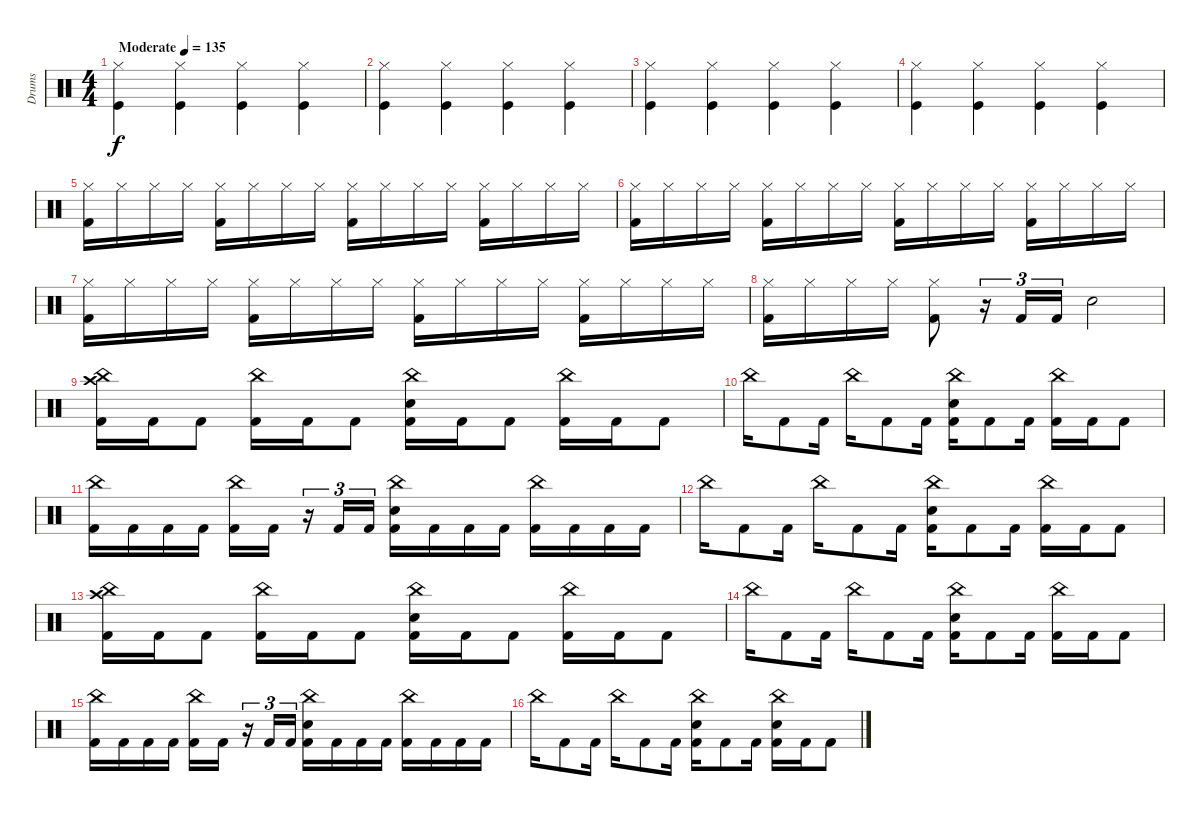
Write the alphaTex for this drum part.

\track ("Drums" "Drums") {instrument percussion}
\staff {score}
\articulation defaults
\ts (4 4)
\tempo (135 "Moderate")
\clef neutral
\ks c
("Kick (hit)" "Hi-Hat (closed)").4{dy f} ("Kick (hit)" "Hi-Hat (closed)").4 ("Kick (hit)" "Hi-Hat (closed)").4 ("Kick (hit)" "Hi-Hat (closed)").4 |
("Kick (hit)" "Hi-Hat (closed)").4 ("Kick (hit)" "Hi-Hat (closed)").4 ("Kick (hit)" "Hi-Hat (closed)").4 ("Kick (hit)" "Hi-Hat (closed)").4 |
("Kick (hit)" "Hi-Hat (closed)").4 ("Kick (hit)" "Hi-Hat (closed)").4 ("Kick (hit)" "Hi-Hat (closed)").4 ("Kick (hit)" "Hi-Hat (closed)").4 |
("Kick (hit)" "Hi-Hat (closed)").4 ("Kick (hit)" "Hi-Hat (closed)").4 ("Kick (hit)" "Hi-Hat (closed)").4 ("Kick (hit)" "Hi-Hat (closed)").4 |
("Hi-Hat (closed)" "Kick (hit) 2").16 "Hi-Hat (closed)".16 "Hi-Hat (closed)".16 "Hi-Hat (closed)".16 ("Hi-Hat (closed)" "Kick (hit) 2").16 "Hi-Hat (closed)".16 "Hi-Hat (closed)".16 "Hi-Hat (closed)".16 ("Hi-Hat (closed)" "Kick (hit) 2").16 "Hi-Hat (closed)".16 "Hi-Hat (closed)".16 "Hi-Hat (closed)".16 ("Hi-Hat (closed)" "Kick (hit) 2").16 "Hi-Hat (closed)".16 "Hi-Hat (closed)".16 "Hi-Hat (closed)".16 |
("Hi-Hat (closed)" "Kick (hit) 2").16 "Hi-Hat (closed)".16 "Hi-Hat (closed)".16 "Hi-Hat (closed)".16 ("Hi-Hat (closed)" "Kick (hit) 2").16 "Hi-Hat (closed)".16 "Hi-Hat (closed)".16 "Hi-Hat (closed)".16 ("Hi-Hat (closed)" "Kick (hit) 2").16 "Hi-Hat (closed)".16 "Hi-Hat (closed)".16 "Hi-Hat (closed)".16 ("Hi-Hat (closed)" "Kick (hit) 2").16 "Hi-Hat (closed)".16 "Hi-Hat (closed)".16 "Hi-Hat (closed)".16 |
("Hi-Hat (closed)" "Kick (hit) 2").16 "Hi-Hat (closed)".16 "Hi-Hat (closed)".16 "Hi-Hat (closed)".16 ("Hi-Hat (closed)" "Kick (hit) 2").16 "Hi-Hat (closed)".16 "Hi-Hat (closed)".16 "Hi-Hat (closed)".16 ("Hi-Hat (closed)" "Kick (hit) 2").16 "Hi-Hat (closed)".16 "Hi-Hat (closed)".16 "Hi-Hat (closed)".16 ("Hi-Hat (closed)" "Kick (hit) 2").16 "Hi-Hat (closed)".16 "Hi-Hat (closed)".16 "Hi-Hat (closed)".16 |
("Hi-Hat (closed)" "Kick (hit) 2").16 "Hi-Hat (closed)".16 "Hi-Hat (closed)".16 "Hi-Hat (closed)".16 ("Hi-Hat (closed)" "Kick (hit) 2").8 r.16{tu (3 2)} "Kick (hit) 2".16{tu (3 2)} "Kick (hit) 2".16{tu (3 2)} "Electric Snare (hit)".2 |
("China (hit)" "Crash high (hit)" "Kick (hit) 2").16 "Kick (hit) 2".16 "Kick (hit) 2".8 ("China (hit)" "Kick (hit) 2").16 "Kick (hit) 2".16 "Kick (hit) 2".8 ("China (hit)" "Electric Snare (hit)" "Kick (hit) 2").16 "Kick (hit) 2".16 "Kick (hit) 2".8 ("China (hit)" "Kick (hit) 2").16 "Kick (hit) 2".16 "Kick (hit) 2".8 |
"China (hit)".16 "Kick (hit) 2".8 "Kick (hit) 2".16 "China (hit)".16 "Kick (hit) 2".8 "Kick (hit) 2".16 ("China (hit)" "Electric Snare (hit)" "Kick (hit) 2").16 "Kick (hit) 2".8 "Kick (hit) 2".16 ("China (hit)" "Kick (hit) 2").16 "Kick (hit) 2".16 "Kick (hit) 2".8 |
("China (hit)" "Kick (hit) 2").16 "Kick (hit) 2".16 "Kick (hit) 2".16 "Kick (hit) 2".16 ("China (hit)" "Kick (hit) 2").16 "Kick (hit) 2".16 r.16{tu (3 2)} "Kick (hit) 2".16{tu (3 2)} "Kick (hit) 2".16{tu (3 2)} ("China (hit)" "Electric Snare (hit)" "Kick (hit) 2").16 "Kick (hit) 2".16 "Kick (hit) 2".16 "Kick (hit) 2".16 ("China (hit)" "Kick (hit) 2").16 "Kick (hit) 2".16 "Kick (hit) 2".16 "Kick (hit) 2".16 |
"China (hit)".16 "Kick (hit) 2".8 "Kick (hit) 2".16 "China (hit)".16 "Kick (hit) 2".8 "Kick (hit) 2".16 ("China (hit)" "Electric Snare (hit)" "Kick (hit) 2").16 "Kick (hit) 2".8 "Kick (hit) 2".16 ("China (hit)" "Kick (hit) 2").16 "Kick (hit) 2".16 "Kick (hit) 2".8 |
("China (hit)" "Crash high (hit)" "Kick (hit) 2").16 "Kick (hit) 2".16 "Kick (hit) 2".8 ("China (hit)" "Kick (hit) 2").16 "Kick (hit) 2".16 "Kick (hit) 2".8 ("China (hit)" "Electric Snare (hit)" "Kick (hit) 2").16 "Kick (hit) 2".16 "Kick (hit) 2".8 ("China (hit)" "Kick (hit) 2").16 "Kick (hit) 2".16 "Kick (hit) 2".8 |
"China (hit)".16 "Kick (hit) 2".8 "Kick (hit) 2".16 "China (hit)".16 "Kick (hit) 2".8 "Kick (hit) 2".16 ("China (hit)" "Electric Snare (hit)" "Kick (hit) 2").16 "Kick (hit) 2".8 "Kick (hit) 2".16 ("China (hit)" "Kick (hit) 2").16 "Kick (hit) 2".16 "Kick (hit) 2".8 |
("China (hit)" "Kick (hit) 2").16 "Kick (hit) 2".16 "Kick (hit) 2".16 "Kick (hit) 2".16 ("China (hit)" "Kick (hit) 2").16 "Kick (hit) 2".16 r.16{tu (3 2)} "Kick (hit) 2".16{tu (3 2)} "Kick (hit) 2".16{tu (3 2)} ("China (hit)" "Electric Snare (hit)" "Kick (hit) 2").16 "Kick (hit) 2".16 "Kick (hit) 2".16 "Kick (hit) 2".16 ("China (hit)" "Kick (hit) 2").16 "Kick (hit) 2".16 "Kick (hit) 2".16 "Kick (hit) 2".16 |
"China (hit)".16 "Kick (hit) 2".8 "Kick (hit) 2".16 "China (hit)".16 "Kick (hit) 2".8 "Kick (hit) 2".16 ("China (hit)" "Electric Snare (hit)" "Kick (hit) 2").16 "Kick (hit) 2".8 "Kick (hit) 2".16 ("China (hit)" "Electric Snare (hit)" "Kick (hit) 2").16 "Kick (hit) 2".16 "Kick (hit) 2".8
